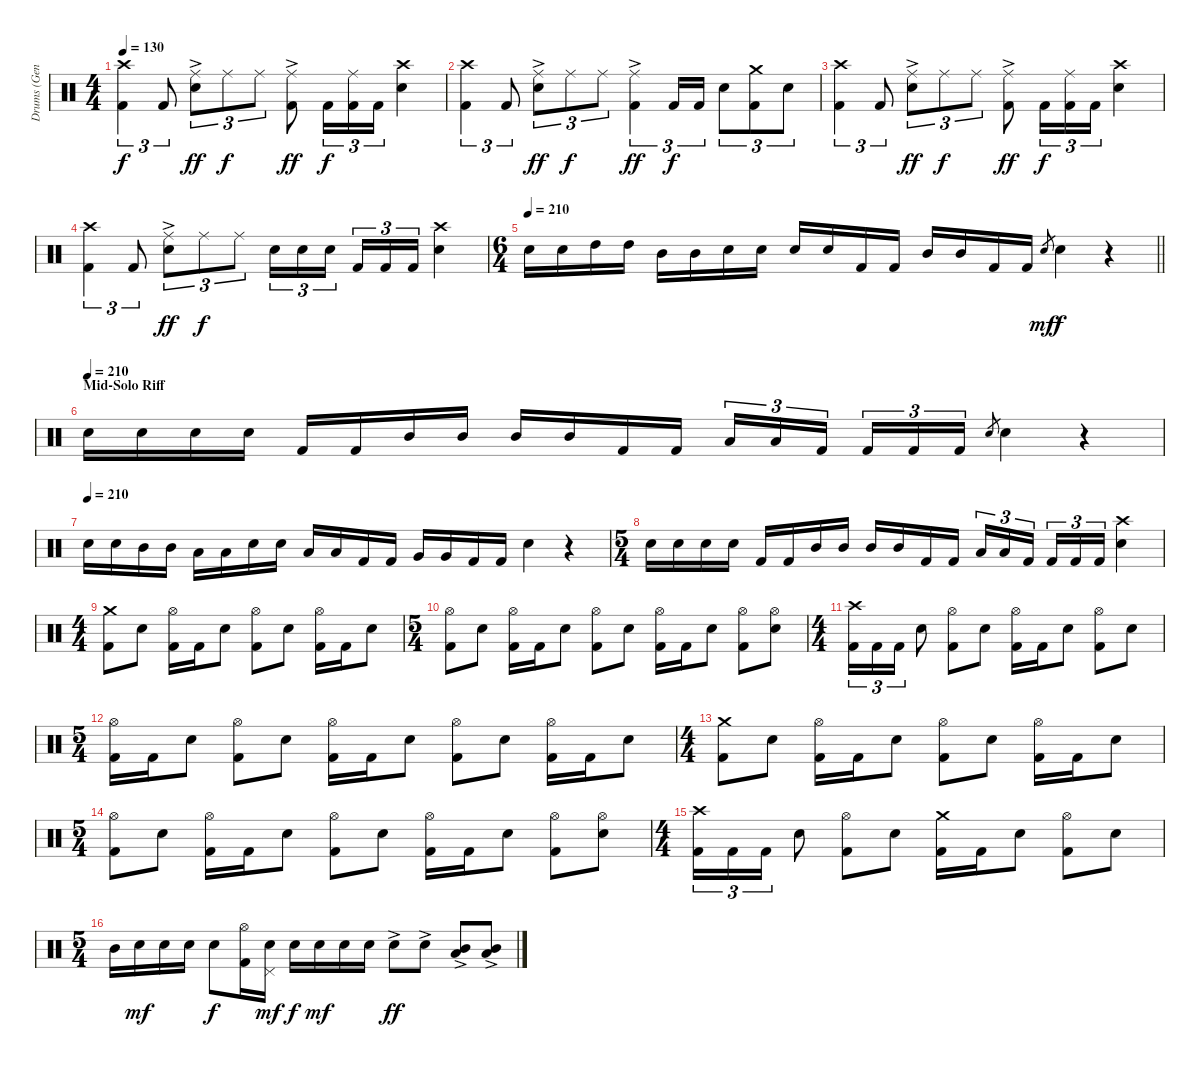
\track ("Drums (Gene Hoglan)" "Drums (Gen") {instrument percussion}
\staff {score}
\articulation defaults
\ts (4 4)
\tempo 130
\clef neutral
\ks c
("Crash high (hit)" "Kick (hit) 2").4{tu (3 2) dy f} "Kick (hit) 2".8{tu (3 2)} ("Ride (middle)"{ac} "Snare (hit) 2").8{tu (3 2) dy ff} "Ride (middle)".8{tu (3 2) dy f} "Ride (middle)".8{tu (3 2)} ("Ride (middle)"{ac} "Kick (hit) 2").8{dy ff} "Kick (hit) 2".16{tu (3 2) dy f} ("Ride (middle)" "Kick (hit) 2").16{tu (3 2)} "Kick (hit) 2".16{tu (3 2)} ("Crash high (hit)" "Snare (hit) 2").4 |
("Crash high (hit)" "Kick (hit) 2").4{tu (3 2)} "Kick (hit) 2".8{tu (3 2)} ("Ride (middle)"{ac} "Snare (hit) 2").8{tu (3 2) dy ff} "Ride (middle)".8{tu (3 2) dy f} "Ride (middle)".8{tu (3 2)} ("Ride (middle)"{ac} "Kick (hit) 2").4{tu (3 2) dy ff} "Kick (hit) 2".16{tu (3 2) dy f} "Kick (hit) 2".16{tu (3 2)} "Snare (hit) 2".8{tu (3 2)} ("Crash medium (hit)" "Kick (hit) 2").8{tu (3 2)} "Snare (hit) 2".8{tu (3 2)} |
("Crash high (hit)" "Kick (hit) 2").4{tu (3 2)} "Kick (hit) 2".8{tu (3 2)} ("Ride (middle)"{ac} "Snare (hit) 2").8{tu (3 2) dy ff} "Ride (middle)".8{tu (3 2) dy f} "Ride (middle)".8{tu (3 2)} ("Ride (middle)"{ac} "Kick (hit) 2").8{dy ff} "Kick (hit) 2".16{tu (3 2) dy f} ("Ride (middle)" "Kick (hit) 2").16{tu (3 2)} "Kick (hit) 2".16{tu (3 2)} ("Crash high (hit)" "Snare (hit) 2").4 |
("Crash high (hit)" "Kick (hit) 2").4{tu (3 2)} "Kick (hit) 2".8{tu (3 2)} ("Ride (middle)"{ac} "Snare (hit) 2").8{tu (3 2) dy ff} "Ride (middle)".8{tu (3 2) dy f} "Ride (middle)".8{tu (3 2)} "Snare (hit) 2".16{tu (3 2)} "Snare (hit) 2".16{tu (3 2)} "Snare (hit) 2".16{tu (3 2) beam splitsecondary} "Kick (hit) 2".16{tu (3 2)} "Kick (hit) 2".16{tu (3 2)} "Kick (hit) 2".16{tu (3 2)} ("Crash high (hit)" "Snare (hit) 2").4 |
\ts (6 4)
\tempo 210
\barLineRight lightlight "Snare (hit) 2".16 "Snare (hit) 2".16 "High Tom (hit)".16 "High Tom (hit)".16 "Mid Tom (hit)".16 "Mid Tom (hit)".16 "Snare (hit) 2".16 "Snare (hit) 2".16 "Snare (hit) 2".16 "Snare (hit) 2".16 "Kick (hit) 2".16 "Kick (hit) 2".16 "Mid Tom (hit)".16 "Mid Tom (hit)".16 "Kick (hit) 2".16 "Kick (hit) 2".16 "Snare (hit) 2".8{gr dy mf} "Snare (hit) 2".4{dy f}
r.4 |
\section ("" "Mid-Solo Riff")
\tempo (210)
"Snare (hit) 2".16 "Snare (hit) 2".16 "Snare (hit) 2".16 "Snare (hit) 2".16 "Kick (hit) 2".16 "Kick (hit) 2".16 "Mid Tom (hit)".16 "Mid Tom (hit)".16 "Mid Tom (hit)".16 "Mid Tom (hit)".16 "Kick (hit) 2".16 "Kick (hit) 2".16 "Low Tom (hit)".16{tu (3 2)} "Low Tom (hit)".16{tu (3 2)} "Kick (hit) 2".16{tu (3 2) beam splitsecondary} "Kick (hit) 2".16{tu (3 2)} "Kick (hit) 2".16{tu (3 2)} "Kick (hit) 2".16{tu (3 2)} "Snare (hit) 2".8{gr} "Snare (hit) 2".4 r.4 |
\tempo (210)
"Snare (hit) 2".16 "Snare (hit) 2".16 "Mid Tom (hit)".16 "Mid Tom (hit)".16 "Low Tom (hit)".16 "Low Tom (hit)".16 "Snare (hit) 2".16 "Snare (hit) 2".16 "Low Tom (hit)".16 "Low Tom (hit)".16 "Kick (hit) 2".16 "Kick (hit) 2".16 "Very Low Tom (hit)".16 "Very Low Tom (hit)".16 "Kick (hit) 2".16 "Kick (hit) 2".16 "Snare (hit) 2".4 r.4 |
\ts (5 4)
"Snare (hit) 2".16 "Snare (hit) 2".16 "Snare (hit) 2".16 "Snare (hit) 2".16 "Kick (hit) 2".16 "Kick (hit) 2".16 "Mid Tom (hit)".16 "Mid Tom (hit)".16 "Mid Tom (hit)".16 "Mid Tom (hit)".16 "Kick (hit) 2".16 "Kick (hit) 2".16 "Low Tom (hit)".16{tu (3 2)} "Low Tom (hit)".16{tu (3 2)} "Kick (hit) 2".16{tu (3 2) beam splitsecondary} "Kick (hit) 2".16{tu (3 2)} "Kick (hit) 2".16{tu (3 2)} "Kick (hit) 2".16{tu (3 2)} ("Crash high (hit)" "Snare (hit) 2").4 |
\ts (4 4)
("Crash medium (hit)" "Kick (hit) 2").8 "Snare (hit) 2".8 ("Hi-Hat (open)" "Kick (hit) 2").16 "Kick (hit) 2".16 "Snare (hit) 2".8 ("Hi-Hat (open)" "Kick (hit) 2").8 "Snare (hit) 2".8 ("Hi-Hat (open)" "Kick (hit) 2").16 "Kick (hit) 2".16 "Snare (hit) 2".8 |
\ts (5 4)
("Hi-Hat (open)" "Kick (hit) 2").8 "Snare (hit) 2".8 ("Hi-Hat (open)" "Kick (hit) 2").16 "Kick (hit) 2".16 "Snare (hit) 2".8 ("Hi-Hat (open)" "Kick (hit) 2").8 "Snare (hit) 2".8 ("Hi-Hat (open)" "Kick (hit) 2").16 "Kick (hit) 2".16 "Snare (hit) 2".8 ("Hi-Hat (open)" "Kick (hit) 2").8 ("Hi-Hat (open)" "Snare (hit) 2").8 |
\ts (4 4)
("Crash high (hit)" "Kick (hit) 2").16{tu (3 2)} "Kick (hit) 2".16{tu (3 2)} "Kick (hit) 2".16{tu (3 2)} "Snare (hit) 2".8 ("Hi-Hat (open)" "Kick (hit) 2").8 "Snare (hit) 2".8 ("Hi-Hat (open)" "Kick (hit) 2").16 "Kick (hit) 2".16 "Snare (hit) 2".8 ("Hi-Hat (open)" "Kick (hit) 2").8 "Snare (hit) 2".8 |
\ts (5 4)
("Hi-Hat (open)" "Kick (hit) 2").16 "Kick (hit) 2".16 "Snare (hit) 2".8 ("Hi-Hat (open)" "Kick (hit) 2").8 "Snare (hit) 2".8 ("Hi-Hat (open)" "Kick (hit) 2").16 "Kick (hit) 2".16 "Snare (hit) 2".8 ("Hi-Hat (open)" "Kick (hit) 2").8 "Snare (hit) 2".8 ("Hi-Hat (open)" "Kick (hit) 2").16 "Kick (hit) 2".16 "Snare (hit) 2".8 |
\ts (4 4)
("Crash medium (hit)" "Kick (hit) 2").8 "Snare (hit) 2".8 ("Hi-Hat (open)" "Kick (hit) 2").16 "Kick (hit) 2".16 "Snare (hit) 2".8 ("Hi-Hat (open)" "Kick (hit) 2").8 "Snare (hit) 2".8 ("Hi-Hat (open)" "Kick (hit) 2").16 "Kick (hit) 2".16 "Snare (hit) 2".8 |
\ts (5 4)
("Hi-Hat (open)" "Kick (hit) 2").8 "Snare (hit) 2".8 ("Hi-Hat (open)" "Kick (hit) 2").16 "Kick (hit) 2".16 "Snare (hit) 2".8 ("Hi-Hat (open)" "Kick (hit) 2").8 "Snare (hit) 2".8 ("Hi-Hat (open)" "Kick (hit) 2").16 "Kick (hit) 2".16 "Snare (hit) 2".8 ("Hi-Hat (open)" "Kick (hit) 2").8 ("Hi-Hat (open)" "Snare (hit) 2").8 |
\ts (4 4)
("Crash high (hit)" "Kick (hit) 2").16{tu (3 2)} "Kick (hit) 2".16{tu (3 2)} "Kick (hit) 2".16{tu (3 2)} "Snare (hit) 2".8 ("Hi-Hat (open)" "Kick (hit) 2").8 "Snare (hit) 2".8 ("Crash medium (hit)" "Kick (hit) 2").16 "Kick (hit) 2".16 "Snare (hit) 2".8 ("Hi-Hat (open)" "Kick (hit) 2").8 "Snare (hit) 2".8 |
\ts (5 4)
"Mid Tom (hit)".16 "Snare (hit) 2".16{dy mf} "Snare (hit) 2".16 "Snare (hit) 2".16 "Snare (hit) 2".8{dy f} ("Hi-Hat (open)" "Kick (hit) 2").16 ("Snare (hit) 2" "Pedal Hi-Hat (hit)").16{dy mf} "Snare (hit) 2".16{dy f} "Snare (hit) 2".16{dy mf} "Snare (hit) 2".16 "Snare (hit) 2".16 "Snare (hit) 2"{ac}.8{dy ff} "Snare (hit) 2"{ac}.8 ("Mid Tom (hit)"{ac} "Low Tom (hit)").8 ("Mid Tom (hit)"{ac} "Low Tom (hit)").8
